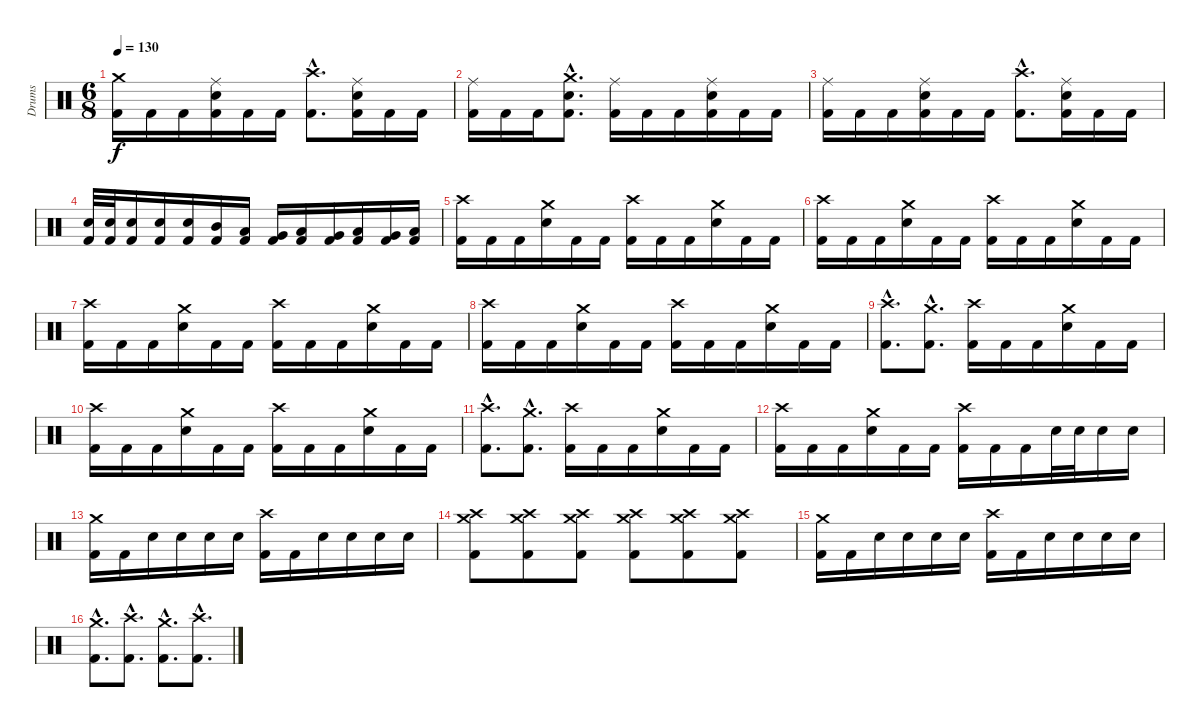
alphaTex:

\track ("Drums" "Drums") {instrument percussion}
\staff {score}
\articulation defaults
\ts (6 8)
\tempo 130
\clef neutral
\ks c
("Crash medium (hit)" "Kick (hit) 2").16{dy f} "Kick (hit) 2".16 "Kick (hit) 2".16 ("Ride (middle)" "Electric Snare (hit)" "Kick (hit) 2").16 "Kick (hit) 2".16 "Kick (hit) 2".16 ("Crash high (hit)"{hac} "Kick (hit) 2"{hac}).8{d} ("Ride (middle)" "Electric Snare (hit)" "Kick (hit) 2").16 "Kick (hit) 2".16 "Kick (hit) 2".16 |
("Ride (middle)" "Kick (hit) 2").16 "Kick (hit) 2".16 "Kick (hit) 2".16 ("Crash medium (hit)"{hac} "Electric Snare (hit)"{hac} "Kick (hit) 2"{hac}).8{d} ("Ride (middle)" "Kick (hit) 2").16 "Kick (hit) 2".16 "Kick (hit) 2".16 ("Ride (middle)" "Electric Snare (hit)" "Kick (hit) 2").16 "Kick (hit) 2".16 "Kick (hit) 2".16 |
("Ride (middle)" "Kick (hit) 2").16 "Kick (hit) 2".16 "Kick (hit) 2".16 ("Ride (middle)" "Electric Snare (hit)" "Kick (hit) 2").16 "Kick (hit) 2".16 "Kick (hit) 2".16 ("Crash high (hit)"{hac} "Kick (hit) 2"{hac}).8{d} ("Ride (middle)" "Electric Snare (hit)" "Kick (hit) 2").16 "Kick (hit) 2".16 "Kick (hit) 2".16 |
("Electric Snare (hit)" "Kick (hit) 2").32 ("Electric Snare (hit)" "Kick (hit) 2").32 ("Electric Snare (hit)" "Kick (hit) 2").16 ("Electric Snare (hit)" "Kick (hit) 2").16 ("Electric Snare (hit)" "Kick (hit) 2").16 ("Mid Tom (hit)" "Kick (hit) 2").16 ("Low Tom (hit)" "Kick (hit) 2").16 ("Very Low Tom (hit)" "Kick (hit) 2").16 ("Low Tom (hit)" "Kick (hit) 2").16 ("Very Low Tom (hit)" "Kick (hit) 2").16 ("Low Floor Tom (hit)" "Kick (hit) 2").16 ("Very Low Tom (hit)" "Kick (hit) 2").16 ("Low Floor Tom (hit)" "Kick (hit) 2").16 |
\section ("" "")
("Crash high (hit)" "Kick (hit) 2").16 "Kick (hit) 2".16 "Kick (hit) 2".16 ("Crash medium (hit)" "Electric Snare (hit)").16 "Kick (hit) 2".16 "Kick (hit) 2".16 ("Crash high (hit)" "Kick (hit) 2").16 "Kick (hit) 2".16 "Kick (hit) 2".16 ("Crash medium (hit)" "Electric Snare (hit)").16 "Kick (hit) 2".16 "Kick (hit) 2".16 |
("Crash high (hit)" "Kick (hit) 2").16 "Kick (hit) 2".16 "Kick (hit) 2".16 ("Crash medium (hit)" "Electric Snare (hit)").16 "Kick (hit) 2".16 "Kick (hit) 2".16 ("Crash high (hit)" "Kick (hit) 2").16 "Kick (hit) 2".16 "Kick (hit) 2".16 ("Crash medium (hit)" "Electric Snare (hit)").16 "Kick (hit) 2".16 "Kick (hit) 2".16 |
("Crash high (hit)" "Kick (hit) 2").16 "Kick (hit) 2".16 "Kick (hit) 2".16 ("Crash medium (hit)" "Electric Snare (hit)").16 "Kick (hit) 2".16 "Kick (hit) 2".16 ("Crash high (hit)" "Kick (hit) 2").16 "Kick (hit) 2".16 "Kick (hit) 2".16 ("Crash medium (hit)" "Electric Snare (hit)").16 "Kick (hit) 2".16 "Kick (hit) 2".16 |
("Crash high (hit)" "Kick (hit) 2").16 "Kick (hit) 2".16 "Kick (hit) 2".16 ("Crash medium (hit)" "Electric Snare (hit)").16 "Kick (hit) 2".16 "Kick (hit) 2".16 ("Crash high (hit)" "Kick (hit) 2").16 "Kick (hit) 2".16 "Kick (hit) 2".16 ("Crash medium (hit)" "Electric Snare (hit)").16 "Kick (hit) 2".16 "Kick (hit) 2".16 |
("Crash high (hit)"{hac} "Kick (hit) 2"{hac}).8{d} ("Crash medium (hit)"{hac} "Kick (hit) 2"{hac}).8{d} ("Crash high (hit)" "Kick (hit) 2").16 "Kick (hit) 2".16 "Kick (hit) 2".16 ("Crash medium (hit)" "Electric Snare (hit)").16 "Kick (hit) 2".16 "Kick (hit) 2".16 |
("Crash high (hit)" "Kick (hit) 2").16 "Kick (hit) 2".16 "Kick (hit) 2".16 ("Crash medium (hit)" "Electric Snare (hit)").16 "Kick (hit) 2".16 "Kick (hit) 2".16 ("Crash high (hit)" "Kick (hit) 2").16 "Kick (hit) 2".16 "Kick (hit) 2".16 ("Crash medium (hit)" "Electric Snare (hit)").16 "Kick (hit) 2".16 "Kick (hit) 2".16 |
("Crash high (hit)"{hac} "Kick (hit) 2"{hac}).8{d} ("Crash medium (hit)"{hac} "Kick (hit) 2"{hac}).8{d} ("Crash high (hit)" "Kick (hit) 2").16 "Kick (hit) 2".16 "Kick (hit) 2".16 ("Crash medium (hit)" "Electric Snare (hit)").16 "Kick (hit) 2".16 "Kick (hit) 2".16 |
("Crash high (hit)" "Kick (hit) 2").16 "Kick (hit) 2".16 "Kick (hit) 2".16 ("Crash medium (hit)" "Electric Snare (hit)").16 "Kick (hit) 2".16 "Kick (hit) 2".16 ("Crash high (hit)" "Kick (hit) 2").16 "Kick (hit) 2".16 "Kick (hit) 2".16 "Electric Snare (hit)".32 "Electric Snare (hit)".32 "Electric Snare (hit)".16 "Electric Snare (hit)".16 |
("Crash medium (hit)" "Kick (hit) 2").16 "Kick (hit) 2".16 "Electric Snare (hit)".16 "Electric Snare (hit)".16 "Electric Snare (hit)".16 "Electric Snare (hit)".16 ("Crash high (hit)" "Kick (hit) 2").16 "Kick (hit) 2".16 "Electric Snare (hit)".16 "Electric Snare (hit)".16 "Electric Snare (hit)".16 "Electric Snare (hit)".16 |
("Crash medium (hit)" "Crash high (hit)" "Kick (hit) 2").8 ("Crash medium (hit)" "Crash high (hit)" "Kick (hit) 2").8 ("Crash medium (hit)" "Crash high (hit)" "Kick (hit) 2").8 ("Crash medium (hit)" "Crash high (hit)" "Kick (hit) 2").8 ("Crash medium (hit)" "Crash high (hit)" "Kick (hit) 2").8 ("Crash medium (hit)" "Crash high (hit)" "Kick (hit) 2").8 |
("Crash medium (hit)" "Kick (hit) 2").16 "Kick (hit) 2".16 "Electric Snare (hit)".16 "Electric Snare (hit)".16 "Electric Snare (hit)".16 "Electric Snare (hit)".16 ("Crash high (hit)" "Kick (hit) 2").16 "Kick (hit) 2".16 "Electric Snare (hit)".16 "Electric Snare (hit)".16 "Electric Snare (hit)".16 "Electric Snare (hit)".16 |
("Crash medium (hit)"{hac} "Kick (hit) 2"{hac}).8{d} ("Crash high (hit)"{hac} "Kick (hit) 2"{hac}).8{d} ("Crash medium (hit)"{hac} "Kick (hit) 2"{hac}).8{d} ("Crash high (hit)"{hac} "Kick (hit) 2"{hac}).8{d}
